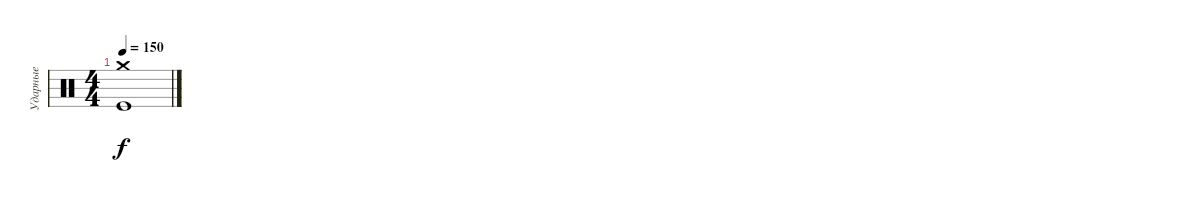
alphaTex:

\track ("Ударные" "Ударные") {instrument percussion}
\staff {score}
\articulation defaults
\ts (4 4)
\tempo 150
\clef neutral
\ks c
("Crash medium (hit)" "Kick (hit)").1{dy f}
